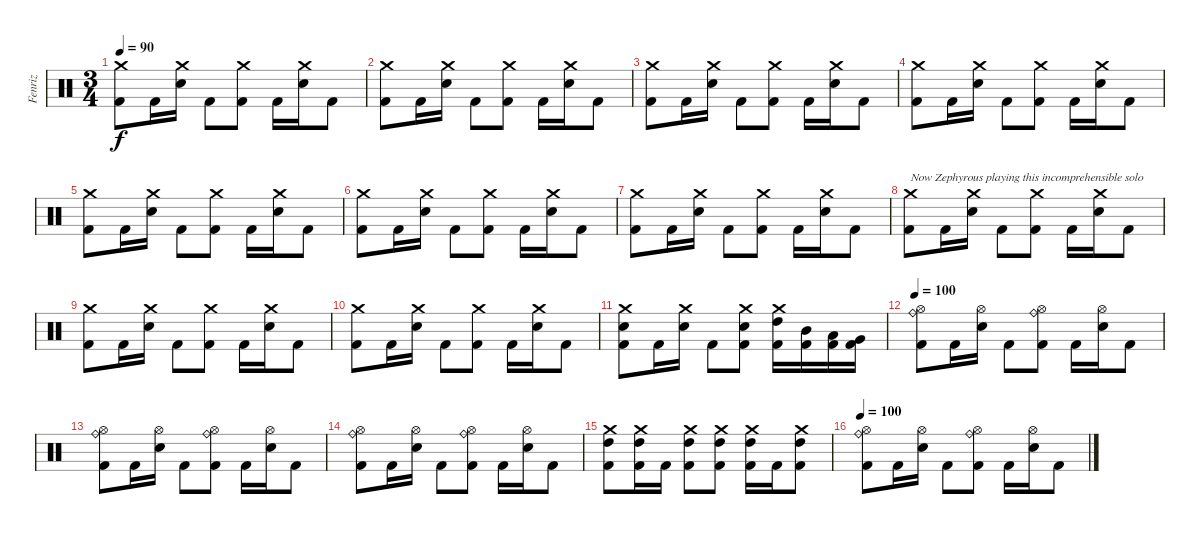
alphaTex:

\track ("Fenriz" "Fenriz") {instrument percussion}
\staff {score}
\articulation defaults
\ts (3 4)
\tempo 90
\clef neutral
\ks c
("Crash medium (hit)" "Kick (hit) 2").8{dy f} "Kick (hit) 2".16 ("Crash medium (hit)" "Electric Snare (hit)").16 "Kick (hit) 2".8 ("Crash medium (hit)" "Kick (hit) 2").8 "Kick (hit) 2".16 ("Crash medium (hit)" "Electric Snare (hit)").16 "Kick (hit) 2".8 |
("Crash medium (hit)" "Kick (hit) 2").8 "Kick (hit) 2".16 ("Crash medium (hit)" "Electric Snare (hit)").16 "Kick (hit) 2".8 ("Crash medium (hit)" "Kick (hit) 2").8 "Kick (hit) 2".16 ("Crash medium (hit)" "Electric Snare (hit)").16 "Kick (hit) 2".8 |
("Crash medium (hit)" "Kick (hit) 2").8 "Kick (hit) 2".16 ("Crash medium (hit)" "Electric Snare (hit)").16 "Kick (hit) 2".8 ("Crash medium (hit)" "Kick (hit) 2").8 "Kick (hit) 2".16 ("Crash medium (hit)" "Electric Snare (hit)").16 "Kick (hit) 2".8 |
("Crash medium (hit)" "Kick (hit) 2").8 "Kick (hit) 2".16 ("Crash medium (hit)" "Electric Snare (hit)").16 "Kick (hit) 2".8 ("Crash medium (hit)" "Kick (hit) 2").8 "Kick (hit) 2".16 ("Crash medium (hit)" "Electric Snare (hit)").16 "Kick (hit) 2".8 |
("Crash medium (hit)" "Kick (hit) 2").8 "Kick (hit) 2".16 ("Crash medium (hit)" "Electric Snare (hit)").16 "Kick (hit) 2".8 ("Crash medium (hit)" "Kick (hit) 2").8 "Kick (hit) 2".16 ("Crash medium (hit)" "Electric Snare (hit)").16 "Kick (hit) 2".8 |
("Crash medium (hit)" "Kick (hit) 2").8 "Kick (hit) 2".16 ("Crash medium (hit)" "Electric Snare (hit)").16 "Kick (hit) 2".8 ("Crash medium (hit)" "Kick (hit) 2").8 "Kick (hit) 2".16 ("Crash medium (hit)" "Electric Snare (hit)").16 "Kick (hit) 2".8 |
("Crash medium (hit)" "Kick (hit) 2").8 "Kick (hit) 2".16 ("Crash medium (hit)" "Electric Snare (hit)").16 "Kick (hit) 2".8 ("Crash medium (hit)" "Kick (hit) 2").8 "Kick (hit) 2".16 ("Crash medium (hit)" "Electric Snare (hit)").16 "Kick (hit) 2".8 |
("Crash medium (hit)" "Kick (hit) 2").8{txt "Now Zephyrous playing this incomprehensible solo"} "Kick (hit) 2".16 ("Crash medium (hit)" "Electric Snare (hit)").16 "Kick (hit) 2".8 ("Crash medium (hit)" "Kick (hit) 2").8 "Kick (hit) 2".16 ("Crash medium (hit)" "Electric Snare (hit)").16 "Kick (hit) 2".8 |
("Crash medium (hit)" "Kick (hit) 2").8 "Kick (hit) 2".16 ("Crash medium (hit)" "Electric Snare (hit)").16 "Kick (hit) 2".8 ("Crash medium (hit)" "Kick (hit) 2").8 "Kick (hit) 2".16 ("Crash medium (hit)" "Electric Snare (hit)").16 "Kick (hit) 2".8 |
("Crash medium (hit)" "Kick (hit) 2").8 "Kick (hit) 2".16 ("Crash medium (hit)" "Electric Snare (hit)").16 "Kick (hit) 2".8 ("Crash medium (hit)" "Kick (hit) 2").8 "Kick (hit) 2".16 ("Crash medium (hit)" "Electric Snare (hit)").16 "Kick (hit) 2".8 |
("Crash medium (hit)" "Electric Snare (hit)" "Kick (hit) 2").8 "Kick (hit) 2".16 ("Crash medium (hit)" "Electric Snare (hit)").16 "Kick (hit) 2".8 ("Crash medium (hit)" "Electric Snare (hit)" "Kick (hit) 2").8 ("Crash medium (hit)" "High Tom (hit)" "Kick (hit) 2").16 ("Mid Tom (hit)" "Kick (hit) 2").16 ("Low Tom (hit)" "Kick (hit) 2").16 ("Very Low Tom (hit)" "Kick (hit) 2").16 |
\tempo 100
("Hi-Hat (open)" "Ride (bell)" "Kick (hit) 2").8 "Kick (hit) 2".16 ("Hi-Hat (open)" "Electric Snare (hit)").16 "Kick (hit) 2".8 ("Hi-Hat (open)" "Ride (bell)" "Kick (hit) 2").8 "Kick (hit) 2".16 ("Hi-Hat (open)" "Electric Snare (hit)").16 "Kick (hit) 2".8 |
("Hi-Hat (open)" "Ride (bell)" "Kick (hit) 2").8 "Kick (hit) 2".16 ("Hi-Hat (open)" "Electric Snare (hit)").16 "Kick (hit) 2".8 ("Hi-Hat (open)" "Ride (bell)" "Kick (hit) 2").8 "Kick (hit) 2".16 ("Hi-Hat (open)" "Electric Snare (hit)").16 "Kick (hit) 2".8 |
("Hi-Hat (open)" "Ride (bell)" "Kick (hit) 2").8 "Kick (hit) 2".16 ("Hi-Hat (open)" "Electric Snare (hit)").16 "Kick (hit) 2".8 ("Hi-Hat (open)" "Ride (bell)" "Kick (hit) 2").8 "Kick (hit) 2".16 ("Hi-Hat (open)" "Electric Snare (hit)").16 "Kick (hit) 2".8 |
("Crash medium (hit)" "High Tom (hit)" "Kick (hit) 2").8 ("Crash medium (hit)" "High Tom (hit)" "Kick (hit) 2").16 "Kick (hit) 2".16 ("Crash medium (hit)" "High Tom (hit)" "Kick (hit) 2").8 ("Crash medium (hit)" "High Tom (hit)" "Kick (hit) 2").8 ("Crash medium (hit)" "High Tom (hit)" "Kick (hit) 2").16 "Kick (hit) 2".16 ("Crash medium (hit)" "High Tom (hit)" "Kick (hit) 2").8 |
\tempo 100
("Hi-Hat (open)" "Ride (bell)" "Kick (hit) 2").8 "Kick (hit) 2".16 ("Hi-Hat (open)" "Electric Snare (hit)").16 "Kick (hit) 2".8 ("Hi-Hat (open)" "Ride (bell)" "Kick (hit) 2").8 "Kick (hit) 2".16 ("Hi-Hat (open)" "Electric Snare (hit)").16 "Kick (hit) 2".8
